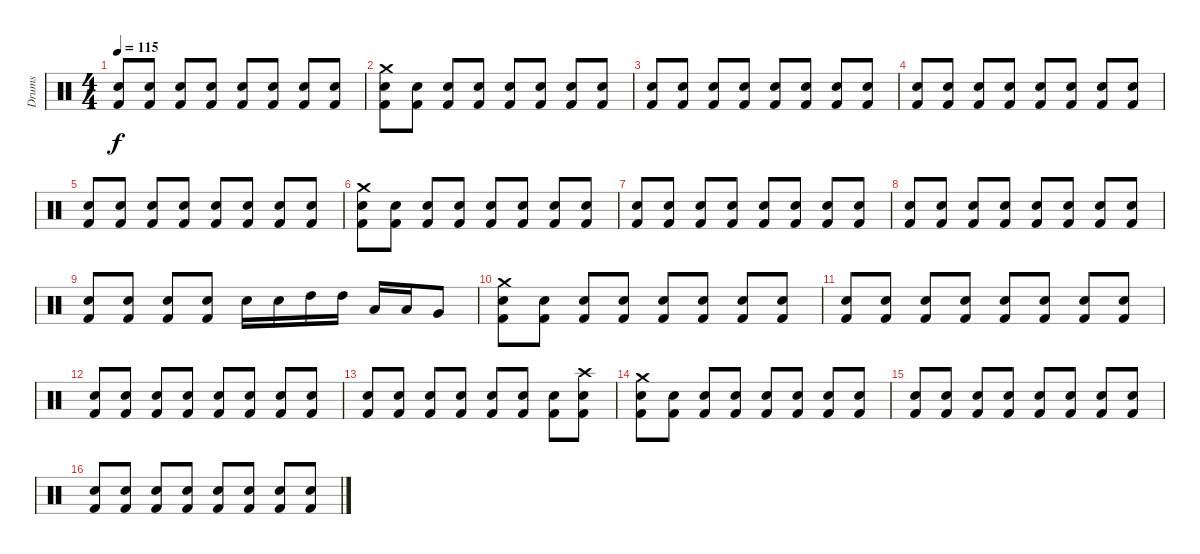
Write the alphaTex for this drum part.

\track ("Drums" "Drums") {instrument percussion}
\staff {score}
\articulation defaults
\ts (4 4)
\tempo 115
\clef neutral
\ks c
("Snare (hit) 2" "Kick (hit) 2").8{dy f} ("Snare (hit) 2" "Kick (hit) 2").8 ("Snare (hit) 2" "Kick (hit) 2").8 ("Snare (hit) 2" "Kick (hit) 2").8 ("Snare (hit) 2" "Kick (hit) 2").8 ("Snare (hit) 2" "Kick (hit) 2").8 ("Snare (hit) 2" "Kick (hit) 2").8 ("Snare (hit) 2" "Kick (hit) 2").8 |
("Crash medium (hit)" "Snare (hit) 2" "Kick (hit) 2").8 ("Snare (hit) 2" "Kick (hit) 2").8 ("Snare (hit) 2" "Kick (hit) 2").8 ("Snare (hit) 2" "Kick (hit) 2").8 ("Snare (hit) 2" "Kick (hit) 2").8 ("Snare (hit) 2" "Kick (hit) 2").8 ("Snare (hit) 2" "Kick (hit) 2").8 ("Snare (hit) 2" "Kick (hit) 2").8 |
("Snare (hit) 2" "Kick (hit) 2").8 ("Snare (hit) 2" "Kick (hit) 2").8 ("Snare (hit) 2" "Kick (hit) 2").8 ("Snare (hit) 2" "Kick (hit) 2").8 ("Snare (hit) 2" "Kick (hit) 2").8 ("Snare (hit) 2" "Kick (hit) 2").8 ("Snare (hit) 2" "Kick (hit) 2").8 ("Snare (hit) 2" "Kick (hit) 2").8 |
("Snare (hit) 2" "Kick (hit) 2").8 ("Snare (hit) 2" "Kick (hit) 2").8 ("Snare (hit) 2" "Kick (hit) 2").8 ("Snare (hit) 2" "Kick (hit) 2").8 ("Snare (hit) 2" "Kick (hit) 2").8 ("Snare (hit) 2" "Kick (hit) 2").8 ("Snare (hit) 2" "Kick (hit) 2").8 ("Snare (hit) 2" "Kick (hit) 2").8 |
("Snare (hit) 2" "Kick (hit) 2").8 ("Snare (hit) 2" "Kick (hit) 2").8 ("Snare (hit) 2" "Kick (hit) 2").8 ("Snare (hit) 2" "Kick (hit) 2").8 ("Snare (hit) 2" "Kick (hit) 2").8 ("Snare (hit) 2" "Kick (hit) 2").8 ("Snare (hit) 2" "Kick (hit) 2").8 ("Snare (hit) 2" "Kick (hit) 2").8 |
("Crash medium (hit)" "Snare (hit) 2" "Kick (hit) 2").8 ("Snare (hit) 2" "Kick (hit) 2").8 ("Snare (hit) 2" "Kick (hit) 2").8 ("Snare (hit) 2" "Kick (hit) 2").8 ("Snare (hit) 2" "Kick (hit) 2").8 ("Snare (hit) 2" "Kick (hit) 2").8 ("Snare (hit) 2" "Kick (hit) 2").8 ("Snare (hit) 2" "Kick (hit) 2").8 |
("Snare (hit) 2" "Kick (hit) 2").8 ("Snare (hit) 2" "Kick (hit) 2").8 ("Snare (hit) 2" "Kick (hit) 2").8 ("Snare (hit) 2" "Kick (hit) 2").8 ("Snare (hit) 2" "Kick (hit) 2").8 ("Snare (hit) 2" "Kick (hit) 2").8 ("Snare (hit) 2" "Kick (hit) 2").8 ("Snare (hit) 2" "Kick (hit) 2").8 |
("Snare (hit) 2" "Kick (hit) 2").8 ("Snare (hit) 2" "Kick (hit) 2").8 ("Snare (hit) 2" "Kick (hit) 2").8 ("Snare (hit) 2" "Kick (hit) 2").8 ("Snare (hit) 2" "Kick (hit) 2").8 ("Snare (hit) 2" "Kick (hit) 2").8 ("Snare (hit) 2" "Kick (hit) 2").8 ("Snare (hit) 2" "Kick (hit) 2").8 |
("Snare (hit) 2" "Kick (hit) 2").8 ("Snare (hit) 2" "Kick (hit) 2").8 ("Snare (hit) 2" "Kick (hit) 2").8 ("Snare (hit) 2" "Kick (hit) 2").8 "Snare (hit) 2".16 "Snare (hit) 2".16 "High Tom (hit)".16 "High Tom (hit)".16 "Low Tom (hit)".16 "Low Tom (hit)".16 "Very Low Tom (hit)".8 |
("Crash medium (hit)" "Snare (hit) 2" "Kick (hit) 2").8 ("Snare (hit) 2" "Kick (hit) 2").8 ("Snare (hit) 2" "Kick (hit) 2").8 ("Snare (hit) 2" "Kick (hit) 2").8 ("Snare (hit) 2" "Kick (hit) 2").8 ("Snare (hit) 2" "Kick (hit) 2").8 ("Snare (hit) 2" "Kick (hit) 2").8 ("Snare (hit) 2" "Kick (hit) 2").8 |
("Snare (hit) 2" "Kick (hit) 2").8 ("Snare (hit) 2" "Kick (hit) 2").8 ("Snare (hit) 2" "Kick (hit) 2").8 ("Snare (hit) 2" "Kick (hit) 2").8 ("Snare (hit) 2" "Kick (hit) 2").8 ("Snare (hit) 2" "Kick (hit) 2").8 ("Snare (hit) 2" "Kick (hit) 2").8 ("Snare (hit) 2" "Kick (hit) 2").8 |
("Snare (hit) 2" "Kick (hit) 2").8 ("Snare (hit) 2" "Kick (hit) 2").8 ("Snare (hit) 2" "Kick (hit) 2").8 ("Snare (hit) 2" "Kick (hit) 2").8 ("Snare (hit) 2" "Kick (hit) 2").8 ("Snare (hit) 2" "Kick (hit) 2").8 ("Snare (hit) 2" "Kick (hit) 2").8 ("Snare (hit) 2" "Kick (hit) 2").8 |
("Snare (hit) 2" "Kick (hit) 2").8 ("Snare (hit) 2" "Kick (hit) 2").8 ("Snare (hit) 2" "Kick (hit) 2").8 ("Snare (hit) 2" "Kick (hit) 2").8 ("Snare (hit) 2" "Kick (hit) 2").8 ("Snare (hit) 2" "Kick (hit) 2").8 ("Snare (hit) 2" "Kick (hit) 2").8 ("Crash high (hit)" "Snare (hit) 2" "Kick (hit) 2").8 |
("Crash medium (hit)" "Snare (hit) 2" "Kick (hit) 2").8 ("Snare (hit) 2" "Kick (hit) 2").8 ("Snare (hit) 2" "Kick (hit) 2").8 ("Snare (hit) 2" "Kick (hit) 2").8 ("Snare (hit) 2" "Kick (hit) 2").8 ("Snare (hit) 2" "Kick (hit) 2").8 ("Snare (hit) 2" "Kick (hit) 2").8 ("Snare (hit) 2" "Kick (hit) 2").8 |
("Snare (hit) 2" "Kick (hit) 2").8 ("Snare (hit) 2" "Kick (hit) 2").8 ("Snare (hit) 2" "Kick (hit) 2").8 ("Snare (hit) 2" "Kick (hit) 2").8 ("Snare (hit) 2" "Kick (hit) 2").8 ("Snare (hit) 2" "Kick (hit) 2").8 ("Snare (hit) 2" "Kick (hit) 2").8 ("Snare (hit) 2" "Kick (hit) 2").8 |
("Snare (hit) 2" "Kick (hit) 2").8 ("Snare (hit) 2" "Kick (hit) 2").8 ("Snare (hit) 2" "Kick (hit) 2").8 ("Snare (hit) 2" "Kick (hit) 2").8 ("Snare (hit) 2" "Kick (hit) 2").8 ("Snare (hit) 2" "Kick (hit) 2").8 ("Snare (hit) 2" "Kick (hit) 2").8 ("Snare (hit) 2" "Kick (hit) 2").8
